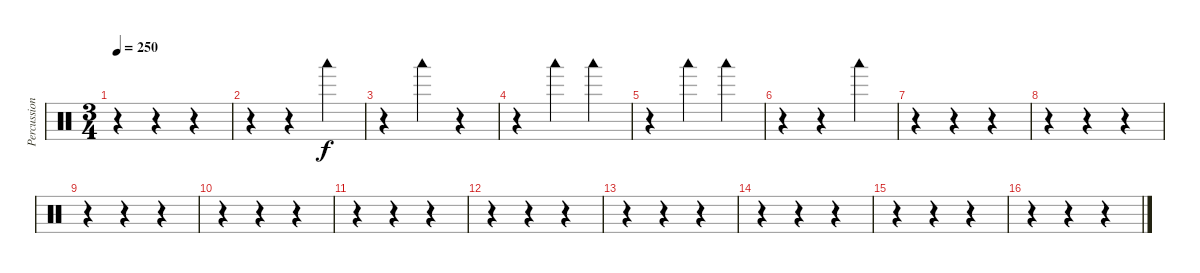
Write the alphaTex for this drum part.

\track ("Percussions" "Percussion") {instrument percussion}
\staff {score}
\articulation defaults
\ts (3 4)
\tempo 250
\clef neutral
\ks c
r.4{dy f} r.4 r.4 |
r.4 r.4 "Woodblock low (hit)".4 |
r.4 "Woodblock low (hit)".4 r.4 |
r.4 "Woodblock low (hit)".4 "Woodblock low (hit)".4 |
r.4 "Woodblock low (hit)".4 "Woodblock low (hit)".4 |
r.4 r.4 "Woodblock low (hit)".4 |
r.4 r.4 r.4 |
r.4 r.4 r.4 |
r.4 r.4 r.4 |
r.4 r.4 r.4 |
r.4 r.4 r.4 |
r.4 r.4 r.4 |
r.4 r.4 r.4 |
r.4 r.4 r.4 |
r.4 r.4 r.4 |
r.4 r.4 r.4
